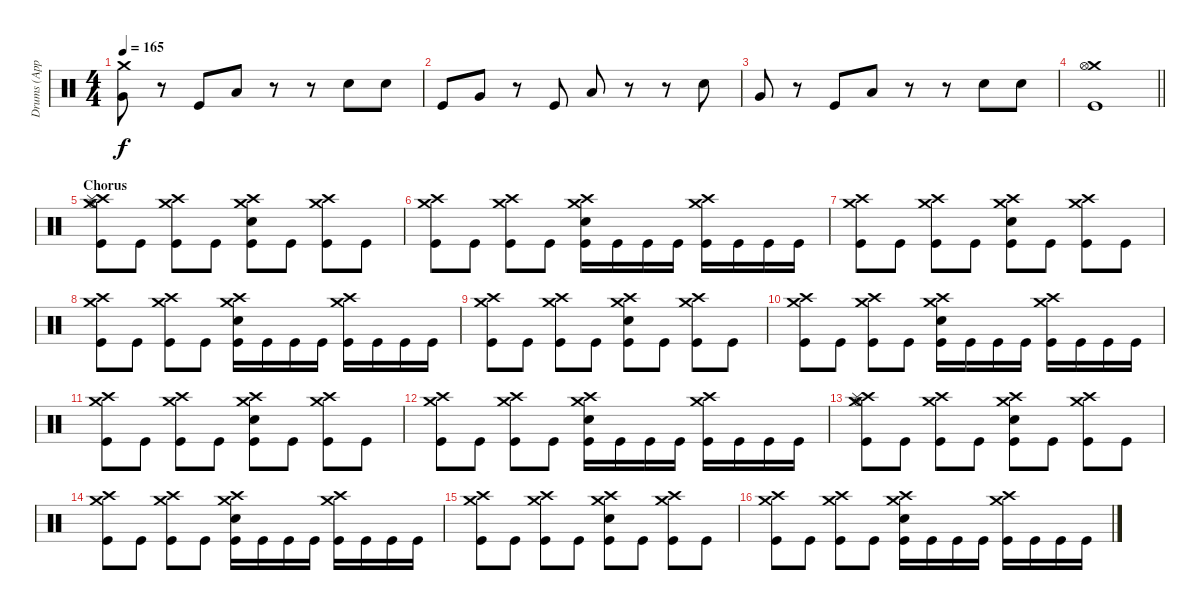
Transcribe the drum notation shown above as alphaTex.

\track ("Drums (Approx.)" "Drums (App") {instrument percussion}
\staff {score}
\articulation defaults
\ts (4 4)
\tempo 165
\clef neutral
\ks c
("Crash medium (hit)" "Very Low Tom (hit)").8{dy f} r.8 "Kick (hit)".8 "Low Floor Tom (hit)".8 r.8 r.8 "Electric Snare (hit)".8 "Electric Snare (hit)".8 |
"Kick (hit)".8 "Very Low Tom (hit)".8 r.8 "Kick (hit)".8 "Low Floor Tom (hit)".8 r.8 r.8 "Electric Snare (hit)".8 |
"Very Low Tom (hit)".8 r.8 "Kick (hit)".8 "Low Floor Tom (hit)".8 r.8 r.8 "Electric Snare (hit)".8 "Electric Snare (hit)".8 |
\barLineRight lightlight
("Crash medium (hit)" "Hi-Hat (open)" "Kick (hit)").1 |
\section ("" "Chorus")
("Hi-Hat (open)" "Crash medium (hit)" "Crash high (hit)" "Splash (hit)" "Kick (hit)").8 "Kick (hit)".8 ("Crash medium (hit)" "Crash high (hit)" "Kick (hit)").8 "Kick (hit)".8 ("Crash medium (hit)" "Crash high (hit)" "Electric Snare (hit)" "Kick (hit)").8 "Kick (hit)".8 ("Crash medium (hit)" "Crash high (hit)" "Kick (hit)").8 "Kick (hit)".8 |
("Crash medium (hit)" "Crash high (hit)" "Kick (hit)").8 "Kick (hit)".8 ("Crash medium (hit)" "Crash high (hit)" "Kick (hit)").8 "Kick (hit)".8 ("Crash medium (hit)" "Crash high (hit)" "Electric Snare (hit)" "Kick (hit)").16 "Kick (hit)".16 "Kick (hit)".16 "Kick (hit)".16 ("Crash medium (hit)" "Crash high (hit)" "Kick (hit)").16 "Kick (hit)".16 "Kick (hit)".16 "Kick (hit)".16 |
("Crash medium (hit)" "Crash high (hit)" "Kick (hit)").8 "Kick (hit)".8 ("Crash medium (hit)" "Crash high (hit)" "Kick (hit)").8 "Kick (hit)".8 ("Crash medium (hit)" "Crash high (hit)" "Electric Snare (hit)" "Kick (hit)").8 "Kick (hit)".8 ("Crash medium (hit)" "Crash high (hit)" "Kick (hit)").8 "Kick (hit)".8 |
("Crash medium (hit)" "Crash high (hit)" "Kick (hit)").8 "Kick (hit)".8 ("Crash medium (hit)" "Crash high (hit)" "Kick (hit)").8 "Kick (hit)".8 ("Crash medium (hit)" "Crash high (hit)" "Electric Snare (hit)" "Kick (hit)").16 "Kick (hit)".16 "Kick (hit)".16 "Kick (hit)".16 ("Crash medium (hit)" "Crash high (hit)" "Kick (hit)").16 "Kick (hit)".16 "Kick (hit)".16 "Kick (hit)".16 |
("Crash medium (hit)" "Crash high (hit)" "Kick (hit)").8 "Kick (hit)".8 ("Crash medium (hit)" "Crash high (hit)" "Kick (hit)").8 "Kick (hit)".8 ("Crash medium (hit)" "Crash high (hit)" "Electric Snare (hit)" "Kick (hit)").8 "Kick (hit)".8 ("Crash medium (hit)" "Crash high (hit)" "Kick (hit)").8 "Kick (hit)".8 |
("Crash medium (hit)" "Crash high (hit)" "Kick (hit)").8 "Kick (hit)".8 ("Crash medium (hit)" "Crash high (hit)" "Kick (hit)").8 "Kick (hit)".8 ("Crash medium (hit)" "Crash high (hit)" "Electric Snare (hit)" "Kick (hit)").16 "Kick (hit)".16 "Kick (hit)".16 "Kick (hit)".16 ("Crash medium (hit)" "Crash high (hit)" "Kick (hit)").16 "Kick (hit)".16 "Kick (hit)".16 "Kick (hit)".16 |
("Crash medium (hit)" "Crash high (hit)" "Kick (hit)").8 "Kick (hit)".8 ("Crash medium (hit)" "Crash high (hit)" "Kick (hit)").8 "Kick (hit)".8 ("Crash medium (hit)" "Crash high (hit)" "Electric Snare (hit)" "Kick (hit)").8 "Kick (hit)".8 ("Crash medium (hit)" "Crash high (hit)" "Kick (hit)").8 "Kick (hit)".8 |
("Crash medium (hit)" "Crash high (hit)" "Kick (hit)").8 "Kick (hit)".8 ("Crash medium (hit)" "Crash high (hit)" "Kick (hit)").8 "Kick (hit)".8 ("Crash medium (hit)" "Crash high (hit)" "Electric Snare (hit)" "Kick (hit)").16 "Kick (hit)".16 "Kick (hit)".16 "Kick (hit)".16 ("Crash medium (hit)" "Crash high (hit)" "Kick (hit)").16 "Kick (hit)".16 "Kick (hit)".16 "Kick (hit)".16 |
("Hi-Hat (open)" "Crash medium (hit)" "Crash high (hit)" "Splash (hit)" "Kick (hit)").8 "Kick (hit)".8 ("Crash medium (hit)" "Crash high (hit)" "Kick (hit)").8 "Kick (hit)".8 ("Crash medium (hit)" "Crash high (hit)" "Electric Snare (hit)" "Kick (hit)").8 "Kick (hit)".8 ("Crash medium (hit)" "Crash high (hit)" "Kick (hit)").8 "Kick (hit)".8 |
("Crash medium (hit)" "Crash high (hit)" "Kick (hit)").8 "Kick (hit)".8 ("Crash medium (hit)" "Crash high (hit)" "Kick (hit)").8 "Kick (hit)".8 ("Crash medium (hit)" "Crash high (hit)" "Electric Snare (hit)" "Kick (hit)").16 "Kick (hit)".16 "Kick (hit)".16 "Kick (hit)".16 ("Crash medium (hit)" "Crash high (hit)" "Kick (hit)").16 "Kick (hit)".16 "Kick (hit)".16 "Kick (hit)".16 |
("Crash medium (hit)" "Crash high (hit)" "Kick (hit)").8 "Kick (hit)".8 ("Crash medium (hit)" "Crash high (hit)" "Kick (hit)").8 "Kick (hit)".8 ("Crash medium (hit)" "Crash high (hit)" "Electric Snare (hit)" "Kick (hit)").8 "Kick (hit)".8 ("Crash medium (hit)" "Crash high (hit)" "Kick (hit)").8 "Kick (hit)".8 |
("Crash medium (hit)" "Crash high (hit)" "Kick (hit)").8 "Kick (hit)".8 ("Crash medium (hit)" "Crash high (hit)" "Kick (hit)").8 "Kick (hit)".8 ("Crash medium (hit)" "Crash high (hit)" "Electric Snare (hit)" "Kick (hit)").16 "Kick (hit)".16 "Kick (hit)".16 "Kick (hit)".16 ("Crash medium (hit)" "Crash high (hit)" "Kick (hit)").16 "Kick (hit)".16 "Kick (hit)".16 "Kick (hit)".16
